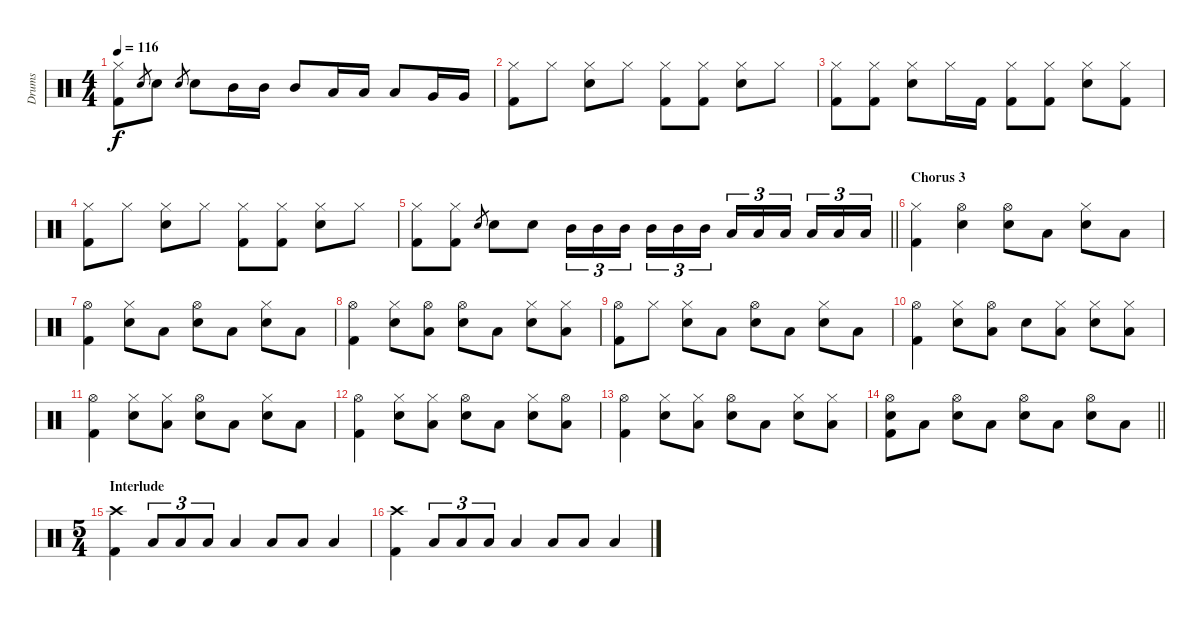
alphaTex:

\track ("Drums" "Drums") {instrument percussion}
\staff {score}
\articulation defaults
\ts (4 4)
\tempo 116
\clef neutral
\ks c
("Hi-Hat (closed)" "Kick (hit) 2").8{dy f} "Snare (hit) 2".8{gr} "Snare (hit) 2".8 "Snare (hit) 2".8{gr} "Snare (hit) 2".8 "Mid Tom (hit)".16 "Mid Tom (hit)".16 "Mid Tom (hit)".8 "Low Tom (hit)".16 "Low Tom (hit)".16 "Low Tom (hit)".8 "Very Low Tom (hit)".16 "Very Low Tom (hit)".16 |
("Hi-Hat (closed)" "Kick (hit) 2").8 "Hi-Hat (closed)".8 ("Hi-Hat (closed)" "Snare (hit) 2").8 "Hi-Hat (closed)".8 ("Hi-Hat (closed)" "Kick (hit) 2").8 ("Hi-Hat (closed)" "Kick (hit) 2").8 ("Hi-Hat (closed)" "Snare (hit) 2").8 "Hi-Hat (closed)".8 |
("Hi-Hat (closed)" "Kick (hit) 2").8 ("Hi-Hat (closed)" "Kick (hit) 2").8 ("Hi-Hat (closed)" "Snare (hit) 2").8 "Hi-Hat (closed)".16 "Kick (hit) 2".16 ("Hi-Hat (closed)" "Kick (hit) 2").8 ("Hi-Hat (closed)" "Kick (hit) 2").8 ("Hi-Hat (closed)" "Snare (hit) 2").8 ("Hi-Hat (closed)" "Kick (hit) 2").8 |
("Hi-Hat (closed)" "Kick (hit) 2").8 "Hi-Hat (closed)".8 ("Hi-Hat (closed)" "Snare (hit) 2").8 "Hi-Hat (closed)".8 ("Hi-Hat (closed)" "Kick (hit) 2").8 ("Hi-Hat (closed)" "Kick (hit) 2").8 ("Hi-Hat (closed)" "Snare (hit) 2").8 "Hi-Hat (closed)".8 |
\barLineRight lightlight
("Hi-Hat (closed)" "Kick (hit) 2").8 ("Hi-Hat (closed)" "Kick (hit) 2").8 "Snare (hit) 2".8{gr} "Snare (hit) 2".8 "Snare (hit) 2".8 "Mid Tom (hit)".16{tu (3 2)} "Mid Tom (hit)".16{tu (3 2)} "Mid Tom (hit)".16{tu (3 2) beam splitsecondary} "Mid Tom (hit)".16{tu (3 2)} "Mid Tom (hit)".16{tu (3 2)} "Mid Tom (hit)".16{tu (3 2)} "Low Tom (hit)".16{tu (3 2)} "Low Tom (hit)".16{tu (3 2)} "Low Tom (hit)".16{tu (3 2) beam splitsecondary} "Low Tom (hit)".16{tu (3 2)} "Low Tom (hit)".16{tu (3 2)} "Low Tom (hit)".16{tu (3 2)} |
\section ("" "Chorus 3")
("Hi-Hat (closed)" "Kick (hit) 2").4 ("Hi-Hat (open)" "Snare (hit) 2").4 ("Hi-Hat (open)" "Snare (hit) 2").8 "Low Tom (hit)".8 ("Hi-Hat (closed)" "Snare (hit) 2").8 "Low Tom (hit)".8 |
("Hi-Hat (open)" "Kick (hit) 2").4 ("Hi-Hat (closed)" "Snare (hit) 2").8 "Low Tom (hit)".8 ("Hi-Hat (open)" "Snare (hit) 2").8 "Low Tom (hit)".8 ("Hi-Hat (closed)" "Snare (hit) 2").8 "Low Tom (hit)".8 |
("Hi-Hat (open)" "Kick (hit) 2").4 ("Hi-Hat (closed)" "Snare (hit) 2").8 ("Hi-Hat (open)" "Low Tom (hit)").8 ("Hi-Hat (open)" "Snare (hit) 2").8 "Low Tom (hit)".8 ("Hi-Hat (closed)" "Snare (hit) 2").8 ("Hi-Hat (closed)" "Low Tom (hit)").8 |
("Hi-Hat (open)" "Kick (hit) 2").8 "Hi-Hat (closed)".8 ("Hi-Hat (closed)" "Snare (hit) 2").8 "Low Tom (hit)".8 ("Hi-Hat (open)" "Snare (hit) 2").8 "Low Tom (hit)".8 ("Hi-Hat (closed)" "Snare (hit) 2").8 "Low Tom (hit)".8 |
("Hi-Hat (open)" "Kick (hit) 2").4 ("Hi-Hat (closed)" "Snare (hit) 2").8 ("Hi-Hat (open)" "Low Tom (hit)").8 "Snare (hit) 2".8 ("Hi-Hat (closed)" "Low Tom (hit)").8 ("Hi-Hat (closed)" "Snare (hit) 2").8 ("Hi-Hat (closed)" "Low Tom (hit)").8 |
("Hi-Hat (open)" "Kick (hit) 2").4 ("Hi-Hat (closed)" "Snare (hit) 2").8 ("Hi-Hat (closed)" "Low Tom (hit)").8 ("Hi-Hat (open)" "Snare (hit) 2").8 "Low Tom (hit)".8 ("Hi-Hat (closed)" "Snare (hit) 2").8 "Low Tom (hit)".8 |
("Hi-Hat (open)" "Kick (hit) 2").4 ("Hi-Hat (closed)" "Snare (hit) 2").8 ("Hi-Hat (closed)" "Low Tom (hit)").8 ("Hi-Hat (open)" "Snare (hit) 2").8 "Low Tom (hit)".8 ("Hi-Hat (closed)" "Snare (hit) 2").8 ("Hi-Hat (open)" "Low Tom (hit)").8 |
("Hi-Hat (open)" "Kick (hit) 2").4 ("Hi-Hat (closed)" "Snare (hit) 2").8 ("Hi-Hat (closed)" "Low Tom (hit)").8 ("Hi-Hat (open)" "Snare (hit) 2").8 "Low Tom (hit)".8 ("Hi-Hat (closed)" "Snare (hit) 2").8 ("Hi-Hat (closed)" "Low Tom (hit)").8 |
\barLineRight lightlight
("Hi-Hat (open)" "Snare (hit) 2" "Kick (hit) 2").8 "Low Tom (hit)".8 ("Hi-Hat (open)" "Snare (hit) 2").8 "Low Tom (hit)".8 ("Hi-Hat (open)" "Snare (hit) 2").8 "Low Tom (hit)".8 ("Hi-Hat (open)" "Snare (hit) 2").8 "Low Tom (hit)".8 |
\ts (5 4)
\section ("" "Interlude")
("Crash high (hit)" "Kick (hit) 2").4 "Low Tom (hit)".8{tu (3 2)} "Low Tom (hit)".8{tu (3 2)} "Low Tom (hit)".8{tu (3 2)} "Low Tom (hit)".4 "Low Tom (hit)".8 "Low Tom (hit)".8 "Low Tom (hit)".4 |
("Crash high (hit)" "Kick (hit) 2").4 "Low Tom (hit)".8{tu (3 2)} "Low Tom (hit)".8{tu (3 2)} "Low Tom (hit)".8{tu (3 2)} "Low Tom (hit)".4 "Low Tom (hit)".8 "Low Tom (hit)".8 "Low Tom (hit)".4
